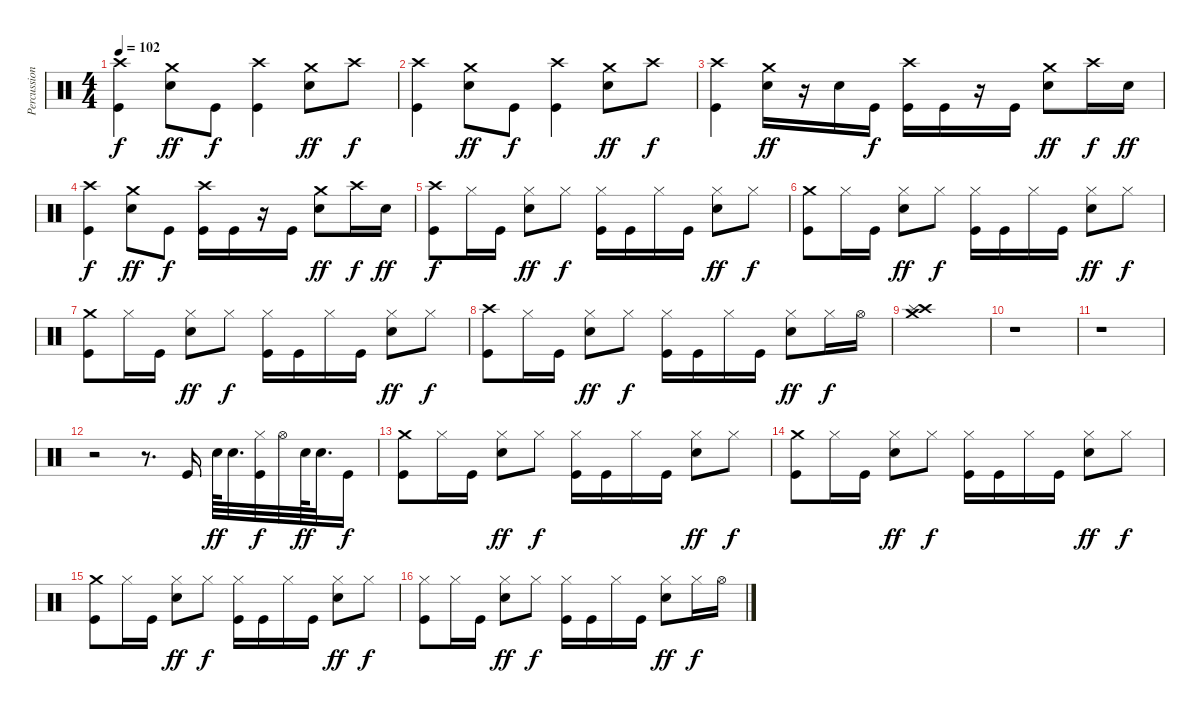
\track ("Percussion" "Percussion") {instrument percussion}
\staff {score}
\articulation defaults
\ts (4 4)
\tempo 102
\clef neutral
\ks c
("Crash high (hit)" "Kick (hit)").4{dy f} ("Crash medium (hit)" "Snare (hit) 2").8{dy ff} "Kick (hit)".8{dy f} ("Crash high (hit)" "Kick (hit)").4 ("Crash medium (hit)" "Snare (hit) 2").8{dy ff} "Crash high (hit)".8{dy f} |
("Crash high (hit)" "Kick (hit)").4 ("Crash medium (hit)" "Snare (hit) 2").8{dy ff} "Kick (hit)".8{dy f} ("Crash high (hit)" "Kick (hit)").4 ("Crash medium (hit)" "Snare (hit) 2").8{dy ff} "Crash high (hit)".8{dy f} |
("Crash high (hit)" "Kick (hit)").4 ("Crash medium (hit)" "Snare (hit) 2").16{dy ff} r.16 "Snare (hit) 2".16 "Kick (hit)".16{dy f} ("Crash high (hit)" "Kick (hit)").16 "Kick (hit)".16 r.16 "Kick (hit)".16 ("Crash medium (hit)" "Snare (hit) 2").8{dy ff} "Crash high (hit)".16{dy f} "Snare (hit) 2".16{dy ff} |
("Crash high (hit)" "Kick (hit)").4{dy f} ("Crash medium (hit)" "Snare (hit) 2").8{dy ff} "Kick (hit)".8{dy f} ("Crash high (hit)" "Kick (hit)").16 "Kick (hit)".16 r.16 "Kick (hit)".16 ("Crash medium (hit)" "Snare (hit) 2").8{dy ff} "Crash high (hit)".16{dy f} "Snare (hit) 2".16{dy ff} |
("Crash high (hit)" "Kick (hit)").8{dy f volume 9} "Hi-Hat (closed)".16 "Kick (hit)".16 ("Hi-Hat (closed)" "Snare (hit) 2").8{dy ff} "Hi-Hat (closed)".8{dy f} ("Hi-Hat (closed)" "Kick (hit)").16 "Kick (hit)".16 "Hi-Hat (closed)".16 "Kick (hit)".16 ("Hi-Hat (closed)" "Snare (hit) 2").8{dy ff} "Hi-Hat (closed)".8{dy f} |
("Crash medium (hit)" "Kick (hit)").8 "Hi-Hat (closed)".16 "Kick (hit)".16 ("Hi-Hat (closed)" "Snare (hit) 2").8{dy ff} "Hi-Hat (closed)".8{dy f} ("Hi-Hat (closed)" "Kick (hit)").16 "Kick (hit)".16 "Hi-Hat (closed)".16 "Kick (hit)".16 ("Hi-Hat (closed)" "Snare (hit) 2").8{dy ff} "Hi-Hat (closed)".8{dy f} |
("Crash medium (hit)" "Kick (hit)").8 "Hi-Hat (closed)".16 "Kick (hit)".16 ("Hi-Hat (closed)" "Snare (hit) 2").8{dy ff} "Hi-Hat (closed)".8{dy f} ("Hi-Hat (closed)" "Kick (hit)").16 "Kick (hit)".16 "Hi-Hat (closed)".16 "Kick (hit)".16 ("Hi-Hat (closed)" "Snare (hit) 2").8{dy ff} "Hi-Hat (closed)".8{dy f} |
("Crash high (hit)" "Kick (hit)").8 "Hi-Hat (closed)".16 "Kick (hit)".16 ("Hi-Hat (closed)" "Snare (hit) 2").8{dy ff} "Hi-Hat (closed)".8{dy f} ("Hi-Hat (closed)" "Kick (hit)").16 "Kick (hit)".16 "Hi-Hat (closed)".16 "Kick (hit)".16 ("Hi-Hat (closed)" "Snare (hit) 2").8{dy ff} "Hi-Hat (closed)".16{dy f} "Hi-Hat (open)".16 |
("Crash high (hit)" "Splash (hit)" "Crash medium (hit)").1 |
r.1 |
r.1 |
r.2 r.8{d} "Kick (hit)".16 "Snare (hit) 2".64{dy ff} "Snare (hit) 2".32{d} ("Hi-Hat (closed)" "Kick (hit)").32{dy f} "Hi-Hat (open)".32 "Snare (hit) 2".64{dy ff} "Snare (hit) 2".32{d} "Kick (hit)".16{dy f} |
("Crash medium (hit)" "Kick (hit)").8 "Hi-Hat (closed)".16 "Kick (hit)".16 ("Hi-Hat (closed)" "Snare (hit) 2").8{dy ff} "Hi-Hat (closed)".8{dy f} ("Hi-Hat (closed)" "Kick (hit)").16 "Kick (hit)".16 "Hi-Hat (closed)".16 "Kick (hit)".16 ("Hi-Hat (closed)" "Snare (hit) 2").8{dy ff} "Hi-Hat (closed)".8{dy f} |
("Crash medium (hit)" "Kick (hit)").8 "Hi-Hat (closed)".16 "Kick (hit)".16 ("Hi-Hat (closed)" "Snare (hit) 2").8{dy ff} "Hi-Hat (closed)".8{dy f} ("Hi-Hat (closed)" "Kick (hit)").16 "Kick (hit)".16 "Hi-Hat (closed)".16 "Kick (hit)".16 ("Hi-Hat (closed)" "Snare (hit) 2").8{dy ff} "Hi-Hat (closed)".8{dy f} |
("Crash medium (hit)" "Kick (hit)").8 "Hi-Hat (closed)".16 "Kick (hit)".16 ("Hi-Hat (closed)" "Snare (hit) 2").8{dy ff} "Hi-Hat (closed)".8{dy f} ("Hi-Hat (closed)" "Kick (hit)").16 "Kick (hit)".16 "Hi-Hat (closed)".16 "Kick (hit)".16 ("Hi-Hat (closed)" "Snare (hit) 2").8{dy ff} "Hi-Hat (closed)".8{dy f} |
("Hi-Hat (closed)" "Kick (hit)").8 "Hi-Hat (closed)".16 "Kick (hit)".16 ("Hi-Hat (closed)" "Snare (hit) 2").8{dy ff} "Hi-Hat (closed)".8{dy f} ("Hi-Hat (closed)" "Kick (hit)").16 "Kick (hit)".16 "Hi-Hat (closed)".16 "Kick (hit)".16 ("Hi-Hat (closed)" "Snare (hit) 2").8{dy ff} "Hi-Hat (closed)".16{dy f} "Hi-Hat (open)".16
